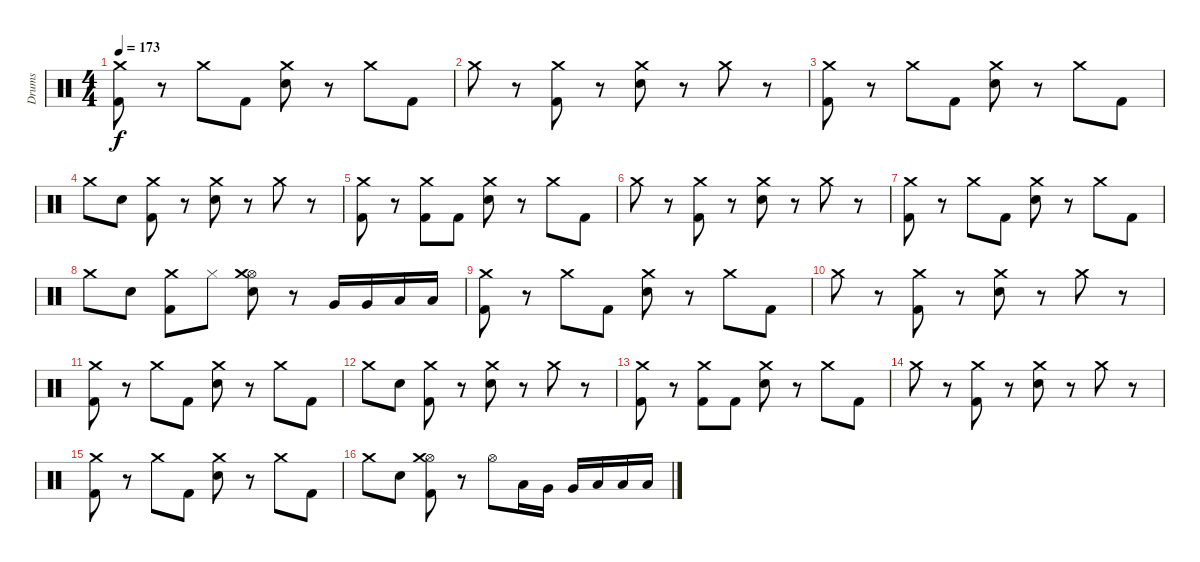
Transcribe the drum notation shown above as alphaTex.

\track ("Drums" "Drums") {instrument percussion}
\staff {score}
\articulation defaults
\ts (4 4)
\tempo 173
\clef neutral
\ks c
("Kick (hit) 2" "Crash medium (hit)").8{dy f} r.8 "Crash medium (hit)".8 "Kick (hit) 2".8 ("Electric Snare (hit)" "Crash medium (hit)").8 r.8 "Crash medium (hit)".8 "Kick (hit) 2".8 |
"Crash medium (hit)".8 r.8 ("Kick (hit) 2" "Crash medium (hit)").8 r.8 ("Electric Snare (hit)" "Crash medium (hit)").8 r.8 "Crash medium (hit)".8 r.8 |
("Kick (hit) 2" "Crash medium (hit)").8 r.8 "Crash medium (hit)".8 "Kick (hit) 2".8 ("Electric Snare (hit)" "Crash medium (hit)").8 r.8 "Crash medium (hit)".8 "Kick (hit) 2".8 |
"Crash medium (hit)".8 "Electric Snare (hit)".8 ("Kick (hit) 2" "Crash medium (hit)").8 r.8 ("Electric Snare (hit)" "Crash medium (hit)").8 r.8 "Crash medium (hit)".8 r.8 |
("Kick (hit) 2" "Crash medium (hit)").8 r.8 ("Kick (hit) 2" "Crash medium (hit)").8 "Kick (hit) 2".8 ("Electric Snare (hit)" "Crash medium (hit)").8 r.8 "Crash medium (hit)".8 "Kick (hit) 2".8 |
"Crash medium (hit)".8 r.8 ("Kick (hit) 2" "Crash medium (hit)").8 r.8 ("Electric Snare (hit)" "Crash medium (hit)").8 r.8 "Crash medium (hit)".8 r.8 |
("Kick (hit) 2" "Crash medium (hit)").8 r.8 "Crash medium (hit)".8 "Kick (hit) 2".8 ("Electric Snare (hit)" "Crash medium (hit)").8 r.8 "Crash medium (hit)".8 "Kick (hit) 2".8 |
"Crash medium (hit)".8 "Electric Snare (hit)".8 ("Kick (hit) 2" "Crash medium (hit)").8 "Hi-Hat (closed)".8 ("Hi-Hat (open)" "Electric Snare (hit)" "Crash medium (hit)").8 r.8 "Very Low Tom (hit)".16 "Very Low Tom (hit)".16 "Low Floor Tom (hit)".16 "Low Floor Tom (hit)".16 |
("Kick (hit) 2" "Crash medium (hit)").8 r.8 "Crash medium (hit)".8 "Kick (hit) 2".8 ("Electric Snare (hit)" "Crash medium (hit)").8 r.8 "Crash medium (hit)".8 "Kick (hit) 2".8 |
"Crash medium (hit)".8 r.8 ("Kick (hit) 2" "Crash medium (hit)").8 r.8 ("Electric Snare (hit)" "Crash medium (hit)").8 r.8 "Crash medium (hit)".8 r.8 |
("Kick (hit) 2" "Crash medium (hit)").8 r.8 "Crash medium (hit)".8 "Kick (hit) 2".8 ("Electric Snare (hit)" "Crash medium (hit)").8 r.8 "Crash medium (hit)".8 "Kick (hit) 2".8 |
"Crash medium (hit)".8 "Electric Snare (hit)".8 ("Kick (hit) 2" "Crash medium (hit)").8 r.8 ("Electric Snare (hit)" "Crash medium (hit)").8 r.8 "Crash medium (hit)".8 r.8 |
("Kick (hit) 2" "Crash medium (hit)").8 r.8 ("Kick (hit) 2" "Crash medium (hit)").8 "Kick (hit) 2".8 ("Electric Snare (hit)" "Crash medium (hit)").8 r.8 "Crash medium (hit)".8 "Kick (hit) 2".8 |
"Crash medium (hit)".8 r.8 ("Kick (hit) 2" "Crash medium (hit)").8 r.8 ("Electric Snare (hit)" "Crash medium (hit)").8 r.8 "Crash medium (hit)".8 r.8 |
("Kick (hit) 2" "Crash medium (hit)").8 r.8 "Crash medium (hit)".8 "Kick (hit) 2".8 ("Electric Snare (hit)" "Crash medium (hit)").8 r.8 "Crash medium (hit)".8 "Kick (hit) 2".8 |
"Crash medium (hit)".8 "Electric Snare (hit)".8 ("Hi-Hat (open)" "Kick (hit) 2" "Crash medium (hit)").8 r.8 "Hi-Hat (open)".8 "Low Tom (hit)".16 "Very Low Tom (hit)".16 "Very Low Tom (hit)".16 "Low Floor Tom (hit)".16 "Low Floor Tom (hit)".16 "Low Floor Tom (hit)".16
